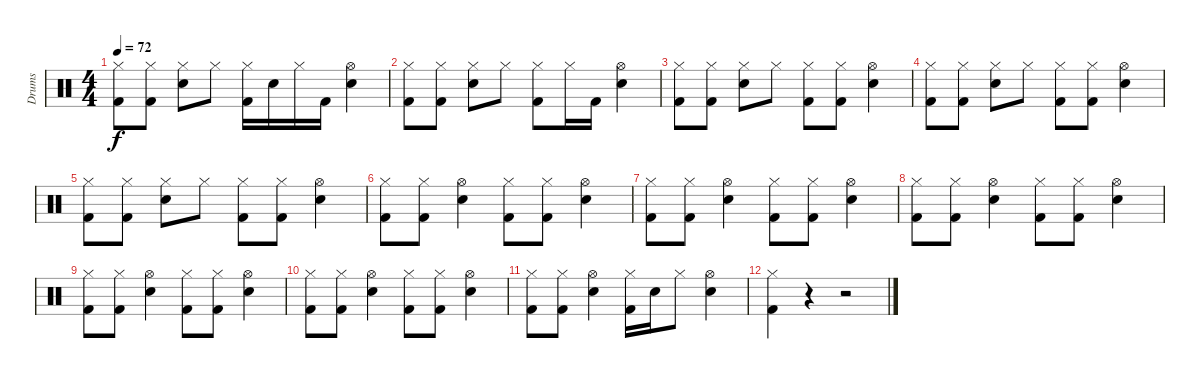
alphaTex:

\track ("Drums" "Drums") {instrument percussion}
\staff {score}
\articulation defaults
\ts (4 4)
\tempo 72
\clef neutral
\ks c
("Hi-Hat (closed)" "Kick (hit) 2").8{dy f} ("Hi-Hat (closed)" "Kick (hit) 2").8 ("Hi-Hat (closed)" "Electric Snare (hit)").8 "Hi-Hat (closed)".8 ("Hi-Hat (closed)" "Kick (hit) 2").16 "Electric Snare (hit)".16 "Hi-Hat (closed)".16 "Kick (hit) 2".16 ("Hi-Hat (open)" "Electric Snare (hit)").4 |
("Hi-Hat (closed)" "Kick (hit) 2").8 ("Hi-Hat (closed)" "Kick (hit) 2").8 ("Hi-Hat (closed)" "Electric Snare (hit)").8 "Hi-Hat (closed)".8 ("Hi-Hat (closed)" "Kick (hit) 2").8 "Hi-Hat (closed)".16 "Kick (hit) 2".16 ("Hi-Hat (open)" "Electric Snare (hit)").4 |
("Hi-Hat (closed)" "Kick (hit) 2").8 ("Hi-Hat (closed)" "Kick (hit) 2").8 ("Hi-Hat (closed)" "Electric Snare (hit)").8 "Hi-Hat (closed)".8 ("Hi-Hat (closed)" "Kick (hit) 2").8 ("Hi-Hat (closed)" "Kick (hit) 2").8 ("Hi-Hat (open)" "Electric Snare (hit)").4 |
("Hi-Hat (closed)" "Kick (hit) 2").8 ("Hi-Hat (closed)" "Kick (hit) 2").8 ("Hi-Hat (closed)" "Electric Snare (hit)").8 "Hi-Hat (closed)".8 ("Hi-Hat (closed)" "Kick (hit) 2").8 ("Hi-Hat (closed)" "Kick (hit) 2").8 ("Hi-Hat (open)" "Electric Snare (hit)").4 |
("Hi-Hat (closed)" "Kick (hit) 2").8 ("Hi-Hat (closed)" "Kick (hit) 2").8 ("Hi-Hat (closed)" "Electric Snare (hit)").8 "Hi-Hat (closed)".8 ("Hi-Hat (closed)" "Kick (hit) 2").8 ("Hi-Hat (closed)" "Kick (hit) 2").8 ("Hi-Hat (open)" "Electric Snare (hit)").4 |
("Hi-Hat (closed)" "Kick (hit) 2").8 ("Hi-Hat (closed)" "Kick (hit) 2").8 ("Hi-Hat (open)" "Electric Snare (hit)").4 ("Hi-Hat (closed)" "Kick (hit) 2").8 ("Hi-Hat (closed)" "Kick (hit) 2").8 ("Hi-Hat (open)" "Electric Snare (hit)").4 |
("Hi-Hat (closed)" "Kick (hit) 2").8 ("Hi-Hat (closed)" "Kick (hit) 2").8 ("Hi-Hat (open)" "Electric Snare (hit)").4 ("Hi-Hat (closed)" "Kick (hit) 2").8 ("Hi-Hat (closed)" "Kick (hit) 2").8 ("Hi-Hat (open)" "Electric Snare (hit)").4 |
("Hi-Hat (closed)" "Kick (hit) 2").8 ("Hi-Hat (closed)" "Kick (hit) 2").8 ("Hi-Hat (open)" "Electric Snare (hit)").4 ("Hi-Hat (closed)" "Kick (hit) 2").8 ("Hi-Hat (closed)" "Kick (hit) 2").8 ("Hi-Hat (open)" "Electric Snare (hit)").4 |
("Hi-Hat (closed)" "Kick (hit) 2").8 ("Hi-Hat (closed)" "Kick (hit) 2").8 ("Hi-Hat (open)" "Electric Snare (hit)").4 ("Hi-Hat (closed)" "Kick (hit) 2").8 ("Hi-Hat (closed)" "Kick (hit) 2").8 ("Hi-Hat (open)" "Electric Snare (hit)").4 |
("Hi-Hat (closed)" "Kick (hit) 2").8 ("Hi-Hat (closed)" "Kick (hit) 2").8 ("Hi-Hat (open)" "Electric Snare (hit)").4 ("Hi-Hat (closed)" "Kick (hit) 2").8 ("Hi-Hat (closed)" "Kick (hit) 2").8 ("Hi-Hat (open)" "Electric Snare (hit)").4 |
("Hi-Hat (closed)" "Kick (hit) 2").8 ("Hi-Hat (closed)" "Kick (hit) 2").8 ("Hi-Hat (open)" "Electric Snare (hit)").4 ("Hi-Hat (closed)" "Kick (hit) 2").16 "Electric Snare (hit)".16 "Hi-Hat (closed)".8 ("Hi-Hat (open)" "Electric Snare (hit)").4 |
("Hi-Hat (closed)" "Kick (hit) 2").4 r.4 r.2
